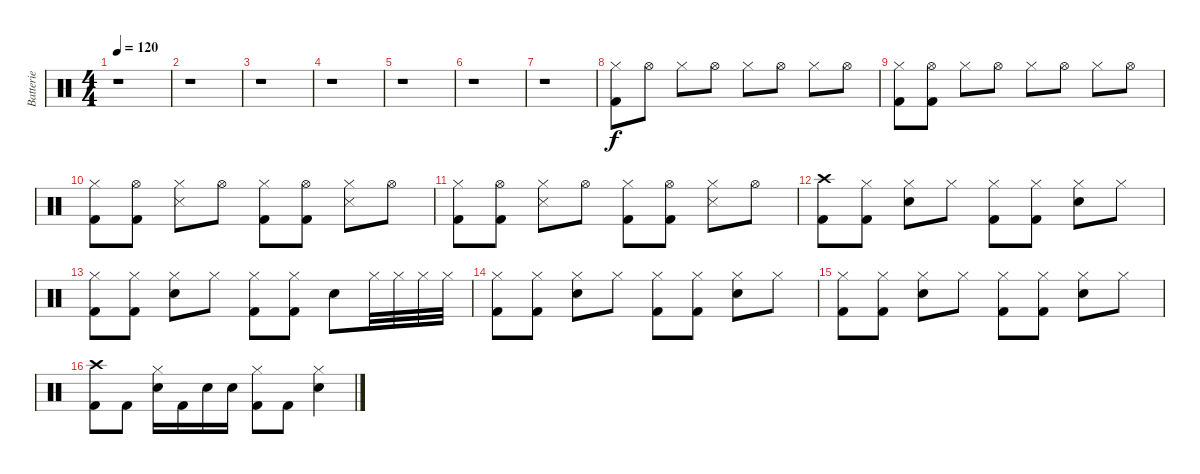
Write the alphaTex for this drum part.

\track ("Batterie" "Batterie") {instrument percussion}
\staff {score}
\articulation defaults
\ts (4 4)
\tempo 120
\clef neutral
\ks c
r.1{dy f} |
r.1 |
r.1 |
r.1 |
r.1 |
r.1 |
r.1 |
("Hi-Hat (closed)" "Kick (hit) 2").8 "Hi-Hat (open)".8 "Hi-Hat (closed)".8 "Hi-Hat (open)".8 "Hi-Hat (closed)".8 "Hi-Hat (open)".8 "Hi-Hat (closed)".8 "Hi-Hat (open)".8 |
("Hi-Hat (closed)" "Kick (hit) 2").8 ("Hi-Hat (open)" "Kick (hit) 2").8 "Hi-Hat (closed)".8 "Hi-Hat (open)".8 "Hi-Hat (closed)".8 "Hi-Hat (open)".8 "Hi-Hat (closed)".8 "Hi-Hat (open)".8 |
("Hi-Hat (closed)" "Kick (hit) 2").8 ("Hi-Hat (open)" "Kick (hit) 2").8 ("Hi-Hat (closed)" "Snare (side stick) 3").8 "Hi-Hat (open)".8 ("Hi-Hat (closed)" "Kick (hit) 2").8 ("Hi-Hat (open)" "Kick (hit) 2").8 ("Hi-Hat (closed)" "Snare (side stick) 3").8 "Hi-Hat (open)".8 |
("Hi-Hat (closed)" "Kick (hit) 2").8 ("Hi-Hat (open)" "Kick (hit) 2").8 ("Hi-Hat (closed)" "Snare (side stick) 3").8 "Hi-Hat (open)".8 ("Hi-Hat (closed)" "Kick (hit) 2").8 ("Hi-Hat (open)" "Kick (hit) 2").8 ("Hi-Hat (closed)" "Snare (side stick) 3").8 "Hi-Hat (open)".8 |
("Crash high (hit)" "Kick (hit) 2").8 ("Hi-Hat (closed)" "Kick (hit) 2").8 ("Hi-Hat (closed)" "Snare (hit) 2").8 "Hi-Hat (closed)".8 ("Hi-Hat (closed)" "Kick (hit) 2").8 ("Hi-Hat (closed)" "Kick (hit) 2").8 ("Hi-Hat (closed)" "Snare (hit) 2").8 "Hi-Hat (closed)".8 |
("Hi-Hat (closed)" "Kick (hit) 2").8 ("Hi-Hat (closed)" "Kick (hit) 2").8 ("Hi-Hat (closed)" "Snare (hit) 2").8 "Hi-Hat (closed)".8 ("Hi-Hat (closed)" "Kick (hit) 2").8 ("Hi-Hat (closed)" "Kick (hit) 2").8 "Snare (hit) 2".8 "Hi-Hat (closed)".32 "Hi-Hat (closed)".32 "Hi-Hat (closed)".32 "Hi-Hat (closed)".32 |
("Hi-Hat (closed)" "Kick (hit) 2").8 ("Hi-Hat (closed)" "Kick (hit) 2").8 ("Hi-Hat (closed)" "Snare (hit) 2").8 "Hi-Hat (closed)".8 ("Hi-Hat (closed)" "Kick (hit) 2").8 ("Hi-Hat (closed)" "Kick (hit) 2").8 ("Hi-Hat (closed)" "Snare (hit) 2").8 "Hi-Hat (closed)".8 |
("Hi-Hat (closed)" "Kick (hit) 2").8 ("Hi-Hat (closed)" "Kick (hit) 2").8 ("Hi-Hat (closed)" "Snare (hit) 2").8 "Hi-Hat (closed)".8 ("Hi-Hat (closed)" "Kick (hit) 2").8 ("Hi-Hat (closed)" "Kick (hit) 2").8 ("Hi-Hat (closed)" "Snare (hit) 2").8 "Hi-Hat (closed)".8 |
("Crash high (hit)" "Kick (hit) 2").8 "Kick (hit) 2".8 ("Hi-Hat (closed)" "Snare (hit) 2").16 "Kick (hit) 2".16 "Snare (hit) 2".16 "Snare (hit) 2".16 ("Hi-Hat (closed)" "Kick (hit) 2").8 "Kick (hit) 2".8 ("Hi-Hat (closed)" "Snare (hit) 2").4
